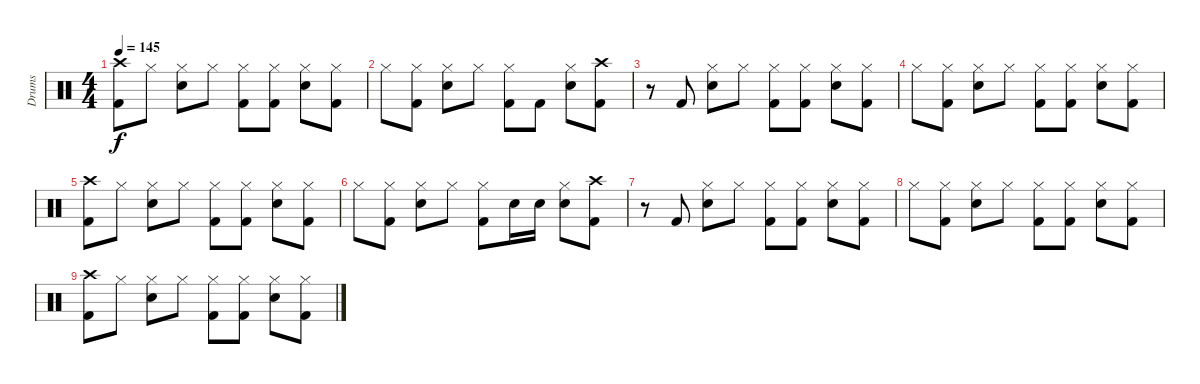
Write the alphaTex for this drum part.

\track ("Drums" "Drums") {instrument percussion}
\staff {score}
\articulation defaults
\ts (4 4)
\tempo 145
\clef neutral
\ks c
("Crash high (hit)" "Kick (hit) 2").8{dy f} "Hi-Hat (closed)".8 ("Hi-Hat (closed)" "Snare (hit) 2").8 "Hi-Hat (closed)".8 ("Hi-Hat (closed)" "Kick (hit) 2").8 ("Hi-Hat (closed)" "Kick (hit) 2").8 ("Hi-Hat (closed)" "Snare (hit) 2").8 ("Hi-Hat (closed)" "Kick (hit) 2").8 |
"Hi-Hat (closed)".8 ("Hi-Hat (closed)" "Kick (hit) 2").8 ("Hi-Hat (closed)" "Snare (hit) 2").8 "Hi-Hat (closed)".8 ("Hi-Hat (closed)" "Kick (hit) 2").8 "Kick (hit) 2".8 ("Hi-Hat (closed)" "Snare (hit) 2").8 ("Crash high (hit)" "Kick (hit) 2").8 |
r.8 "Kick (hit) 2".8 ("Hi-Hat (closed)" "Snare (hit) 2").8 "Hi-Hat (closed)".8 ("Hi-Hat (closed)" "Kick (hit) 2").8 ("Hi-Hat (closed)" "Kick (hit) 2").8 ("Hi-Hat (closed)" "Snare (hit) 2").8 ("Hi-Hat (closed)" "Kick (hit) 2").8 |
"Hi-Hat (closed)".8 ("Hi-Hat (closed)" "Kick (hit) 2").8 ("Hi-Hat (closed)" "Snare (hit) 2").8 "Hi-Hat (closed)".8 ("Hi-Hat (closed)" "Kick (hit) 2").8 ("Hi-Hat (closed)" "Kick (hit) 2").8 ("Hi-Hat (closed)" "Snare (hit) 2").8 ("Hi-Hat (closed)" "Kick (hit) 2").8 |
("Crash high (hit)" "Kick (hit) 2").8 "Hi-Hat (closed)".8 ("Hi-Hat (closed)" "Snare (hit) 2").8 "Hi-Hat (closed)".8 ("Hi-Hat (closed)" "Kick (hit) 2").8 ("Hi-Hat (closed)" "Kick (hit) 2").8 ("Hi-Hat (closed)" "Snare (hit) 2").8 ("Hi-Hat (closed)" "Kick (hit) 2").8 |
"Hi-Hat (closed)".8 ("Hi-Hat (closed)" "Kick (hit) 2").8 ("Hi-Hat (closed)" "Snare (hit) 2").8 "Hi-Hat (closed)".8 ("Hi-Hat (closed)" "Kick (hit) 2").8 "Snare (hit) 2".16 "Snare (hit) 2".16 ("Hi-Hat (closed)" "Snare (hit) 2").8 ("Crash high (hit)" "Kick (hit) 2").8 |
r.8 "Kick (hit) 2".8 ("Hi-Hat (closed)" "Snare (hit) 2").8 "Hi-Hat (closed)".8 ("Hi-Hat (closed)" "Kick (hit) 2").8 ("Hi-Hat (closed)" "Kick (hit) 2").8 ("Hi-Hat (closed)" "Snare (hit) 2").8 ("Hi-Hat (closed)" "Kick (hit) 2").8 |
"Hi-Hat (closed)".8 ("Hi-Hat (closed)" "Kick (hit) 2").8 ("Hi-Hat (closed)" "Snare (hit) 2").8 "Hi-Hat (closed)".8 ("Hi-Hat (closed)" "Kick (hit) 2").8 ("Hi-Hat (closed)" "Kick (hit) 2").8 ("Hi-Hat (closed)" "Snare (hit) 2").8 ("Hi-Hat (closed)" "Kick (hit) 2").8 |
("Crash high (hit)" "Kick (hit) 2").8 "Hi-Hat (closed)".8 ("Hi-Hat (closed)" "Snare (hit) 2").8 "Hi-Hat (closed)".8 ("Hi-Hat (closed)" "Kick (hit) 2").8 ("Hi-Hat (closed)" "Kick (hit) 2").8 ("Hi-Hat (closed)" "Snare (hit) 2").8 ("Hi-Hat (closed)" "Kick (hit) 2").8
